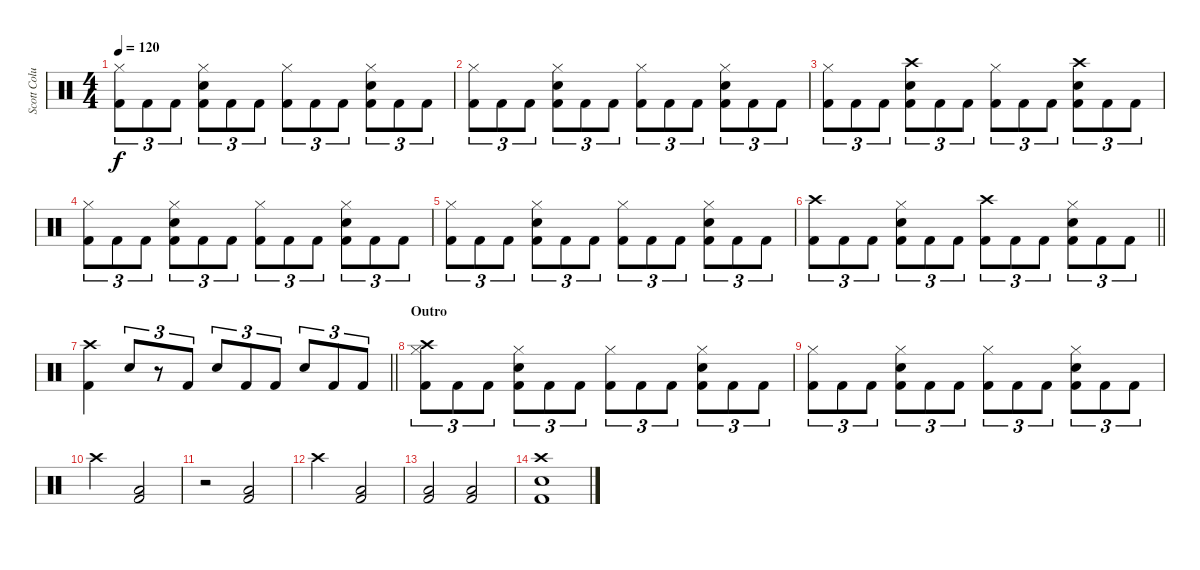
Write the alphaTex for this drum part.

\track ("Scott Columbus" "Scott Colu") {instrument percussion}
\staff {score}
\articulation defaults
\ts (4 4)
\tempo 120
\clef neutral
\ks c
("Hi-Hat (closed)" "Kick (hit) 2").8{tu (3 2) dy f} "Kick (hit) 2".8{tu (3 2)} "Kick (hit) 2".8{tu (3 2)} ("Hi-Hat (closed)" "Snare (hit) 2" "Kick (hit) 2").8{tu (3 2)} "Kick (hit) 2".8{tu (3 2)} "Kick (hit) 2".8{tu (3 2)} ("Hi-Hat (closed)" "Kick (hit) 2").8{tu (3 2)} "Kick (hit) 2".8{tu (3 2)} "Kick (hit) 2".8{tu (3 2)} ("Hi-Hat (closed)" "Snare (hit) 2" "Kick (hit) 2").8{tu (3 2)} "Kick (hit) 2".8{tu (3 2)} "Kick (hit) 2".8{tu (3 2)} |
("Hi-Hat (closed)" "Kick (hit) 2").8{tu (3 2)} "Kick (hit) 2".8{tu (3 2)} "Kick (hit) 2".8{tu (3 2)} ("Hi-Hat (closed)" "Snare (hit) 2" "Kick (hit) 2").8{tu (3 2)} "Kick (hit) 2".8{tu (3 2)} "Kick (hit) 2".8{tu (3 2)} ("Hi-Hat (closed)" "Kick (hit) 2").8{tu (3 2)} "Kick (hit) 2".8{tu (3 2)} "Kick (hit) 2".8{tu (3 2)} ("Hi-Hat (closed)" "Snare (hit) 2" "Kick (hit) 2").8{tu (3 2)} "Kick (hit) 2".8{tu (3 2)} "Kick (hit) 2".8{tu (3 2)} |
("Hi-Hat (closed)" "Kick (hit) 2").8{tu (3 2)} "Kick (hit) 2".8{tu (3 2)} "Kick (hit) 2".8{tu (3 2)} ("Crash high (hit)" "Snare (hit) 2" "Kick (hit) 2").8{tu (3 2)} "Kick (hit) 2".8{tu (3 2)} "Kick (hit) 2".8{tu (3 2)} ("Hi-Hat (closed)" "Kick (hit) 2").8{tu (3 2)} "Kick (hit) 2".8{tu (3 2)} "Kick (hit) 2".8{tu (3 2)} ("Crash high (hit)" "Snare (hit) 2" "Kick (hit) 2").8{tu (3 2)} "Kick (hit) 2".8{tu (3 2)} "Kick (hit) 2".8{tu (3 2)} |
("Hi-Hat (closed)" "Kick (hit) 2").8{tu (3 2)} "Kick (hit) 2".8{tu (3 2)} "Kick (hit) 2".8{tu (3 2)} ("Hi-Hat (closed)" "Snare (hit) 2" "Kick (hit) 2").8{tu (3 2)} "Kick (hit) 2".8{tu (3 2)} "Kick (hit) 2".8{tu (3 2)} ("Hi-Hat (closed)" "Kick (hit) 2").8{tu (3 2)} "Kick (hit) 2".8{tu (3 2)} "Kick (hit) 2".8{tu (3 2)} ("Hi-Hat (closed)" "Snare (hit) 2" "Kick (hit) 2").8{tu (3 2)} "Kick (hit) 2".8{tu (3 2)} "Kick (hit) 2".8{tu (3 2)} |
("Hi-Hat (closed)" "Kick (hit) 2").8{tu (3 2)} "Kick (hit) 2".8{tu (3 2)} "Kick (hit) 2".8{tu (3 2)} ("Hi-Hat (closed)" "Snare (hit) 2" "Kick (hit) 2").8{tu (3 2)} "Kick (hit) 2".8{tu (3 2)} "Kick (hit) 2".8{tu (3 2)} ("Hi-Hat (closed)" "Kick (hit) 2").8{tu (3 2)} "Kick (hit) 2".8{tu (3 2)} "Kick (hit) 2".8{tu (3 2)} ("Hi-Hat (closed)" "Snare (hit) 2" "Kick (hit) 2").8{tu (3 2)} "Kick (hit) 2".8{tu (3 2)} "Kick (hit) 2".8{tu (3 2)} |
\barLineRight lightlight
("Crash high (hit)" "Kick (hit) 2").8{tu (3 2)} "Kick (hit) 2".8{tu (3 2)} "Kick (hit) 2".8{tu (3 2)} ("Hi-Hat (closed)" "Snare (hit) 2" "Kick (hit) 2").8{tu (3 2)} "Kick (hit) 2".8{tu (3 2)} "Kick (hit) 2".8{tu (3 2)} ("Crash high (hit)" "Kick (hit) 2").8{tu (3 2)} "Kick (hit) 2".8{tu (3 2)} "Kick (hit) 2".8{tu (3 2)} ("Hi-Hat (closed)" "Snare (hit) 2" "Kick (hit) 2").8{tu (3 2)} "Kick (hit) 2".8{tu (3 2)} "Kick (hit) 2".8{tu (3 2)} |
\barLineRight lightlight
("Crash high (hit)" "Kick (hit) 2").4 "Snare (hit) 2".8{tu (3 2)} r.8{tu (3 2)} "Kick (hit) 2".8{tu (3 2)} "Snare (hit) 2".8{tu (3 2)} "Kick (hit) 2".8{tu (3 2)} "Kick (hit) 2".8{tu (3 2)} "Snare (hit) 2".8{tu (3 2)} "Kick (hit) 2".8{tu (3 2)} "Kick (hit) 2".8{tu (3 2)} |
\section ("" "Outro")
("Crash high (hit)" "Hi-Hat (closed)" "Kick (hit) 2").8{tu (3 2)} "Kick (hit) 2".8{tu (3 2)} "Kick (hit) 2".8{tu (3 2)} ("Hi-Hat (closed)" "Snare (hit) 2" "Kick (hit) 2").8{tu (3 2)} "Kick (hit) 2".8{tu (3 2)} "Kick (hit) 2".8{tu (3 2)} ("Hi-Hat (closed)" "Kick (hit) 2").8{tu (3 2)} "Kick (hit) 2".8{tu (3 2)} "Kick (hit) 2".8{tu (3 2)} ("Hi-Hat (closed)" "Snare (hit) 2" "Kick (hit) 2").8{tu (3 2)} "Kick (hit) 2".8{tu (3 2)} "Kick (hit) 2".8{tu (3 2)} |
("Hi-Hat (closed)" "Kick (hit) 2").8{tu (3 2)} "Kick (hit) 2".8{tu (3 2)} "Kick (hit) 2".8{tu (3 2)} ("Hi-Hat (closed)" "Snare (hit) 2" "Kick (hit) 2").8{tu (3 2)} "Kick (hit) 2".8{tu (3 2)} "Kick (hit) 2".8{tu (3 2)} ("Hi-Hat (closed)" "Kick (hit) 2").8{tu (3 2)} "Kick (hit) 2".8{tu (3 2)} "Kick (hit) 2".8{tu (3 2)} ("Hi-Hat (closed)" "Snare (hit) 2" "Kick (hit) 2").8{tu (3 2)} "Kick (hit) 2".8{tu (3 2)} "Kick (hit) 2".8{tu (3 2)} |
"Crash high (hit)".2 ("Low Tom (hit)" "Kick (hit) 2").2 |
r.2 ("Low Tom (hit)" "Kick (hit) 2").2 |
"Crash high (hit)".2 ("Low Tom (hit)" "Kick (hit) 2").2 |
("Low Tom (hit)" "Kick (hit) 2").2 ("Low Tom (hit)" "Kick (hit) 2").2 |
("Crash high (hit)" "Snare (hit) 2" "Kick (hit) 2").1
